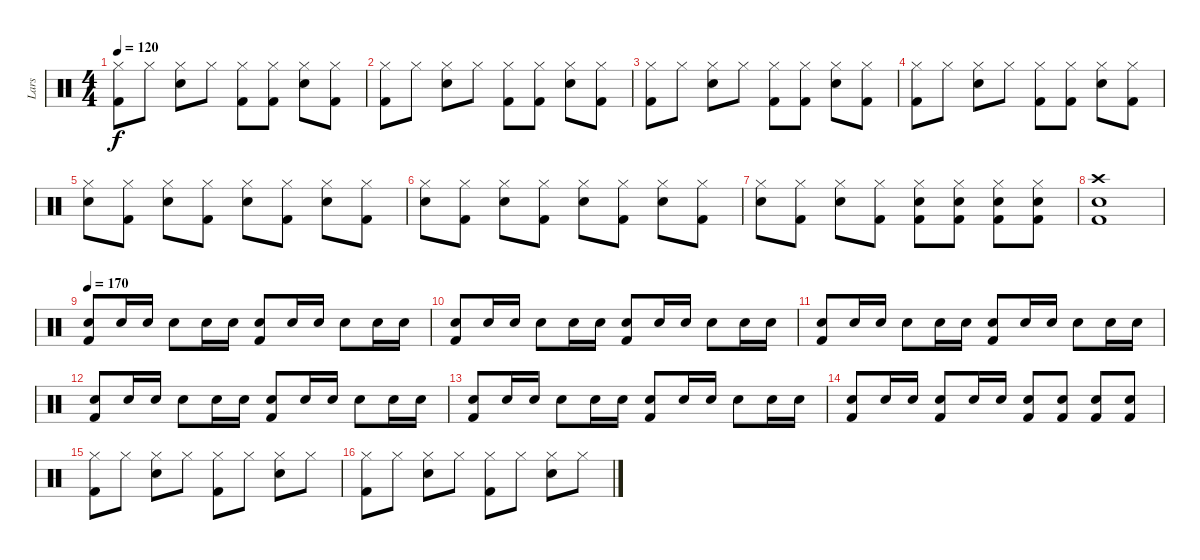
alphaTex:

\track ("Lars" "Lars") {instrument percussion}
\staff {score}
\articulation defaults
\ts (4 4)
\tempo 120
\clef neutral
\ks c
("Hi-Hat (closed)" "Kick (hit) 2").8{dy f} "Hi-Hat (closed)".8 ("Hi-Hat (closed)" "Electric Snare (hit)").8 "Hi-Hat (closed)".8 ("Hi-Hat (closed)" "Kick (hit) 2").8 ("Hi-Hat (closed)" "Kick (hit) 2").8 ("Hi-Hat (closed)" "Electric Snare (hit)").8 ("Hi-Hat (closed)" "Kick (hit) 2").8 |
("Hi-Hat (closed)" "Kick (hit) 2").8 "Hi-Hat (closed)".8 ("Hi-Hat (closed)" "Electric Snare (hit)").8 "Hi-Hat (closed)".8 ("Hi-Hat (closed)" "Kick (hit) 2").8 ("Hi-Hat (closed)" "Kick (hit) 2").8 ("Hi-Hat (closed)" "Electric Snare (hit)").8 ("Hi-Hat (closed)" "Kick (hit) 2").8 |
("Hi-Hat (closed)" "Kick (hit) 2").8 "Hi-Hat (closed)".8 ("Hi-Hat (closed)" "Electric Snare (hit)").8 "Hi-Hat (closed)".8 ("Hi-Hat (closed)" "Kick (hit) 2").8 ("Hi-Hat (closed)" "Kick (hit) 2").8 ("Hi-Hat (closed)" "Electric Snare (hit)").8 ("Hi-Hat (closed)" "Kick (hit) 2").8 |
("Hi-Hat (closed)" "Kick (hit) 2").8 "Hi-Hat (closed)".8 ("Hi-Hat (closed)" "Electric Snare (hit)").8 "Hi-Hat (closed)".8 ("Hi-Hat (closed)" "Kick (hit) 2").8 ("Hi-Hat (closed)" "Kick (hit) 2").8 ("Hi-Hat (closed)" "Electric Snare (hit)").8 ("Hi-Hat (closed)" "Kick (hit) 2").8 |
("Hi-Hat (closed)" "Electric Snare (hit)").8 ("Hi-Hat (closed)" "Kick (hit) 2").8 ("Hi-Hat (closed)" "Electric Snare (hit)").8 ("Hi-Hat (closed)" "Kick (hit) 2").8 ("Hi-Hat (closed)" "Electric Snare (hit)").8 ("Hi-Hat (closed)" "Kick (hit) 2").8 ("Hi-Hat (closed)" "Electric Snare (hit)").8 ("Hi-Hat (closed)" "Kick (hit) 2").8 |
("Hi-Hat (closed)" "Electric Snare (hit)").8 ("Hi-Hat (closed)" "Kick (hit) 2").8 ("Hi-Hat (closed)" "Electric Snare (hit)").8 ("Hi-Hat (closed)" "Kick (hit) 2").8 ("Hi-Hat (closed)" "Electric Snare (hit)").8 ("Hi-Hat (closed)" "Kick (hit) 2").8 ("Hi-Hat (closed)" "Electric Snare (hit)").8 ("Hi-Hat (closed)" "Kick (hit) 2").8 |
("Hi-Hat (closed)" "Electric Snare (hit)").8 ("Hi-Hat (closed)" "Kick (hit) 2").8 ("Hi-Hat (closed)" "Electric Snare (hit)").8 ("Hi-Hat (closed)" "Kick (hit) 2").8 ("Hi-Hat (closed)" "Electric Snare (hit)" "Kick (hit) 2").8 ("Hi-Hat (closed)" "Electric Snare (hit)" "Kick (hit) 2").8 ("Hi-Hat (closed)" "Electric Snare (hit)" "Kick (hit) 2").8 ("Hi-Hat (closed)" "Electric Snare (hit)" "Kick (hit) 2").8 |
("Crash high (hit)" "Electric Snare (hit)" "Kick (hit) 2").1 |
\tempo 170
("Electric Snare (hit)" "Kick (hit) 2").8 "Electric Snare (hit)".16 "Electric Snare (hit)".16 "Electric Snare (hit)".8 "Electric Snare (hit)".16 "Electric Snare (hit)".16 ("Electric Snare (hit)" "Kick (hit) 2").8 "Electric Snare (hit)".16 "Electric Snare (hit)".16 "Electric Snare (hit)".8 "Electric Snare (hit)".16 "Electric Snare (hit)".16 |
("Electric Snare (hit)" "Kick (hit) 2").8 "Electric Snare (hit)".16 "Electric Snare (hit)".16 "Electric Snare (hit)".8 "Electric Snare (hit)".16 "Electric Snare (hit)".16 ("Electric Snare (hit)" "Kick (hit) 2").8 "Electric Snare (hit)".16 "Electric Snare (hit)".16 "Electric Snare (hit)".8 "Electric Snare (hit)".16 "Electric Snare (hit)".16 |
("Electric Snare (hit)" "Kick (hit) 2").8 "Electric Snare (hit)".16 "Electric Snare (hit)".16 "Electric Snare (hit)".8 "Electric Snare (hit)".16 "Electric Snare (hit)".16 ("Electric Snare (hit)" "Kick (hit) 2").8 "Electric Snare (hit)".16 "Electric Snare (hit)".16 "Electric Snare (hit)".8 "Electric Snare (hit)".16 "Electric Snare (hit)".16 |
("Electric Snare (hit)" "Kick (hit) 2").8 "Electric Snare (hit)".16 "Electric Snare (hit)".16 "Electric Snare (hit)".8 "Electric Snare (hit)".16 "Electric Snare (hit)".16 ("Electric Snare (hit)" "Kick (hit) 2").8 "Electric Snare (hit)".16 "Electric Snare (hit)".16 "Electric Snare (hit)".8 "Electric Snare (hit)".16 "Electric Snare (hit)".16 |
("Electric Snare (hit)" "Kick (hit) 2").8 "Electric Snare (hit)".16 "Electric Snare (hit)".16 "Electric Snare (hit)".8 "Electric Snare (hit)".16 "Electric Snare (hit)".16 ("Electric Snare (hit)" "Kick (hit) 2").8 "Electric Snare (hit)".16 "Electric Snare (hit)".16 "Electric Snare (hit)".8 "Electric Snare (hit)".16 "Electric Snare (hit)".16 |
("Electric Snare (hit)" "Kick (hit) 2").8 "Electric Snare (hit)".16 "Electric Snare (hit)".16 ("Electric Snare (hit)" "Kick (hit) 2").8 "Electric Snare (hit)".16 "Electric Snare (hit)".16 ("Electric Snare (hit)" "Kick (hit) 2").8 ("Electric Snare (hit)" "Kick (hit) 2").8 ("Electric Snare (hit)" "Kick (hit) 2").8 ("Electric Snare (hit)" "Kick (hit) 2").8 |
("Hi-Hat (closed)" "Kick (hit) 2").8 "Hi-Hat (closed)".8 ("Hi-Hat (closed)" "Electric Snare (hit)").8 "Hi-Hat (closed)".8 ("Hi-Hat (closed)" "Kick (hit) 2").8 "Hi-Hat (closed)".8 ("Hi-Hat (closed)" "Electric Snare (hit)").8 "Hi-Hat (closed)".8 |
("Hi-Hat (closed)" "Kick (hit) 2").8 "Hi-Hat (closed)".8 ("Hi-Hat (closed)" "Electric Snare (hit)").8 "Hi-Hat (closed)".8 ("Hi-Hat (closed)" "Kick (hit) 2").8 "Hi-Hat (closed)".8 ("Hi-Hat (closed)" "Electric Snare (hit)").8 "Hi-Hat (closed)".8
